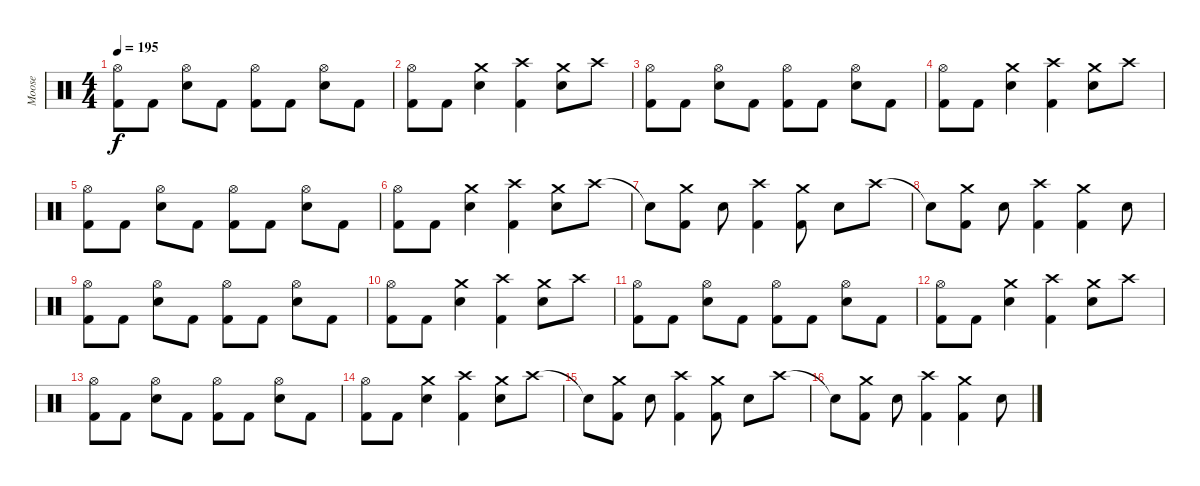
\track ("Moose" "Moose") {instrument percussion}
\staff {score}
\articulation defaults
\ts (4 4)
\tempo 195
\clef neutral
\ks c
("Hi-Hat (open)" "Kick (hit) 2").8{dy f} "Kick (hit) 2".8 ("Hi-Hat (open)" "Snare (hit) 2").8 "Kick (hit) 2".8 ("Hi-Hat (open)" "Kick (hit) 2").8 "Kick (hit) 2".8 ("Hi-Hat (open)" "Snare (hit) 2").8 "Kick (hit) 2".8 |
("Hi-Hat (open)" "Kick (hit) 2").8 "Kick (hit) 2".8 ("Crash medium (hit)" "Snare (hit) 2").4 ("Crash high (hit)" "Kick (hit) 2").4 ("Crash medium (hit)" "Snare (hit) 2").8 "Crash high (hit)".8 |
("Hi-Hat (open)" "Kick (hit) 2").8 "Kick (hit) 2".8 ("Hi-Hat (open)" "Snare (hit) 2").8 "Kick (hit) 2".8 ("Hi-Hat (open)" "Kick (hit) 2").8 "Kick (hit) 2".8 ("Hi-Hat (open)" "Snare (hit) 2").8 "Kick (hit) 2".8 |
("Hi-Hat (open)" "Kick (hit) 2").8 "Kick (hit) 2".8 ("Crash medium (hit)" "Snare (hit) 2").4 ("Crash high (hit)" "Kick (hit) 2").4 ("Crash medium (hit)" "Snare (hit) 2").8 "Crash high (hit)".8 |
("Hi-Hat (open)" "Kick (hit) 2").8 "Kick (hit) 2".8 ("Hi-Hat (open)" "Snare (hit) 2").8 "Kick (hit) 2".8 ("Hi-Hat (open)" "Kick (hit) 2").8 "Kick (hit) 2".8 ("Hi-Hat (open)" "Snare (hit) 2").8 "Kick (hit) 2".8 |
("Hi-Hat (open)" "Kick (hit) 2").8 "Kick (hit) 2".8 ("Crash medium (hit)" "Snare (hit) 2").4 ("Crash high (hit)" "Kick (hit) 2").4 ("Crash medium (hit)" "Snare (hit) 2").8 "Crash high (hit)".8 |
"Snare (hit)"{t}.8 ("Crash medium (hit)" "Kick (hit) 2").8 "Snare (hit) 2".8 ("Crash high (hit)" "Kick (hit) 2").4 ("Crash medium (hit)" "Kick (hit) 2").8 "Snare (hit) 2".8 "Crash high (hit)".8 |
"Snare (hit)"{t}.8 ("Crash medium (hit)" "Kick (hit) 2").8 "Snare (hit) 2".8 ("Crash high (hit)" "Kick (hit) 2").4 ("Crash medium (hit)" "Kick (hit) 2").4 "Snare (hit) 2".8 |
("Hi-Hat (open)" "Kick (hit) 2").8 "Kick (hit) 2".8 ("Hi-Hat (open)" "Snare (hit) 2").8 "Kick (hit) 2".8 ("Hi-Hat (open)" "Kick (hit) 2").8 "Kick (hit) 2".8 ("Hi-Hat (open)" "Snare (hit) 2").8 "Kick (hit) 2".8 |
("Hi-Hat (open)" "Kick (hit) 2").8 "Kick (hit) 2".8 ("Crash medium (hit)" "Snare (hit) 2").4 ("Crash high (hit)" "Kick (hit) 2").4 ("Crash medium (hit)" "Snare (hit) 2").8 "Crash high (hit)".8 |
("Hi-Hat (open)" "Kick (hit) 2").8 "Kick (hit) 2".8 ("Hi-Hat (open)" "Snare (hit) 2").8 "Kick (hit) 2".8 ("Hi-Hat (open)" "Kick (hit) 2").8 "Kick (hit) 2".8 ("Hi-Hat (open)" "Snare (hit) 2").8 "Kick (hit) 2".8 |
("Hi-Hat (open)" "Kick (hit) 2").8 "Kick (hit) 2".8 ("Crash medium (hit)" "Snare (hit) 2").4 ("Crash high (hit)" "Kick (hit) 2").4 ("Crash medium (hit)" "Snare (hit) 2").8 "Crash high (hit)".8 |
("Hi-Hat (open)" "Kick (hit) 2").8 "Kick (hit) 2".8 ("Hi-Hat (open)" "Snare (hit) 2").8 "Kick (hit) 2".8 ("Hi-Hat (open)" "Kick (hit) 2").8 "Kick (hit) 2".8 ("Hi-Hat (open)" "Snare (hit) 2").8 "Kick (hit) 2".8 |
("Hi-Hat (open)" "Kick (hit) 2").8 "Kick (hit) 2".8 ("Crash medium (hit)" "Snare (hit) 2").4 ("Crash high (hit)" "Kick (hit) 2").4 ("Crash medium (hit)" "Snare (hit) 2").8 "Crash high (hit)".8 |
"Snare (hit)"{t}.8 ("Crash medium (hit)" "Kick (hit) 2").8 "Snare (hit) 2".8 ("Crash high (hit)" "Kick (hit) 2").4 ("Crash medium (hit)" "Kick (hit) 2").8 "Snare (hit) 2".8 "Crash high (hit)".8 |
"Snare (hit)"{t}.8 ("Crash medium (hit)" "Kick (hit) 2").8 "Snare (hit) 2".8 ("Crash high (hit)" "Kick (hit) 2").4 ("Crash medium (hit)" "Kick (hit) 2").4 "Snare (hit) 2".8
